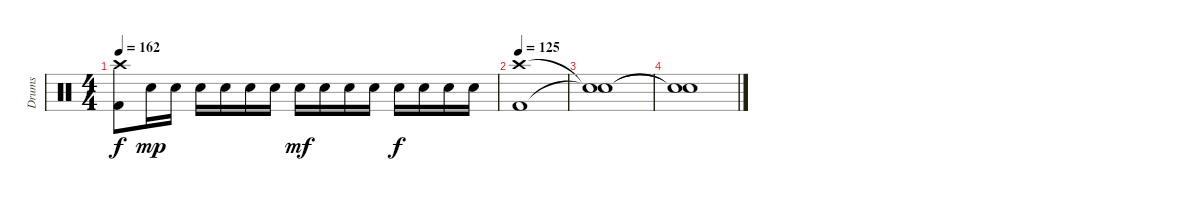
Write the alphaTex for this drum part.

\track ("Drums" "Drums") {instrument percussion}
\staff {score}
\articulation defaults
\ts (4 4)
\tempo 162
\clef neutral
\ks c
("Crash high (hit)" "Kick (hit) 2").8{dy f} "Electric Snare (hit)".16{dy mp} "Electric Snare (hit)".16 "Electric Snare (hit)".16 "Electric Snare (hit)".16 "Electric Snare (hit)".16 "Electric Snare (hit)".16 "Electric Snare (hit)".16{dy mf} "Electric Snare (hit)".16 "Electric Snare (hit)".16 "Electric Snare (hit)".16 "Electric Snare (hit)".16{dy f} "Electric Snare (hit)".16 "Electric Snare (hit)".16 "Electric Snare (hit)".16 |
\tempo 125
("Crash high (hit)" "Kick (hit) 2").1 |
("Snare (hit)"{t} "Snare (hit)"{t}).1 |
("Snare (hit)"{t} "Snare (hit)"{t}).1
